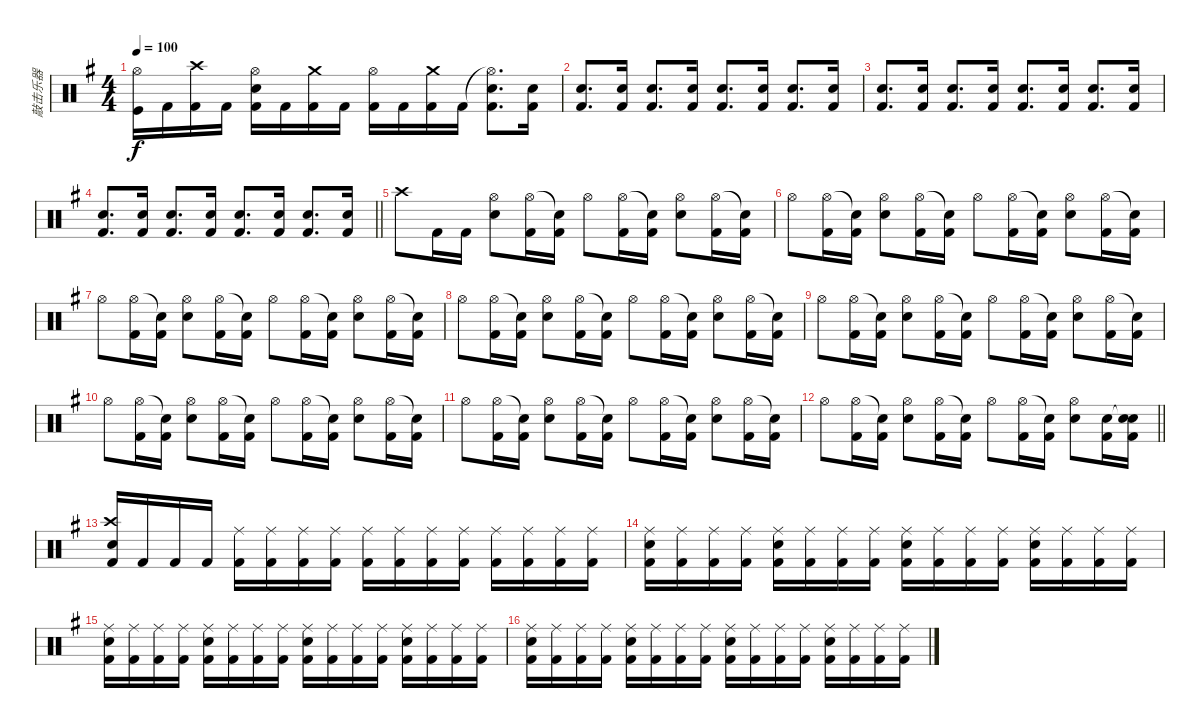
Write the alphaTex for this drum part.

\track ("敲击乐器" "敲击乐器") {instrument percussion}
\staff {score}
\articulation defaults
\ts (4 4)
\tempo 100
\clef neutral
\ks eminor
("Hi-Hat (open)" "Kick (hit)").16{dy f} "Kick (hit) 2".16 ("Crash high (hit)" "Kick (hit) 2").16 "Kick (hit) 2".16 ("Hi-Hat (open)" "Snare (hit) 2" "Kick (hit) 2").16 "Kick (hit) 2".16 ("Crash medium (hit)" "Kick (hit) 2").16 "Kick (hit) 2".16 ("Hi-Hat (open)" "Kick (hit) 2").16 "Kick (hit) 2".16 ("Crash medium (hit)" "Kick (hit) 2").16 "Kick (hit) 2".16 ("Hi-Hat (open)"{t} "Snare (hit) 2" "Kick (hit) 2").8{d} ("Snare (hit) 2" "Kick (hit) 2").16 |
("Snare (hit) 2" "Kick (hit) 2").8{d} ("Snare (hit) 2" "Kick (hit) 2").16 ("Snare (hit) 2" "Kick (hit) 2").8{d} ("Snare (hit) 2" "Kick (hit) 2").16 ("Snare (hit) 2" "Kick (hit) 2").8{d} ("Snare (hit) 2" "Kick (hit) 2").16 ("Snare (hit) 2" "Kick (hit) 2").8{d} ("Snare (hit) 2" "Kick (hit) 2").16 |
("Snare (hit) 2" "Kick (hit) 2").8{d} ("Snare (hit) 2" "Kick (hit) 2").16 ("Snare (hit) 2" "Kick (hit) 2").8{d} ("Snare (hit) 2" "Kick (hit) 2").16 ("Snare (hit) 2" "Kick (hit) 2").8{d} ("Snare (hit) 2" "Kick (hit) 2").16 ("Snare (hit) 2" "Kick (hit) 2").8{d} ("Snare (hit) 2" "Kick (hit) 2").16 |
\barLineRight lightlight
("Snare (hit) 2" "Kick (hit) 2").8{d} ("Snare (hit) 2" "Kick (hit) 2").16 ("Snare (hit) 2" "Kick (hit) 2").8{d} ("Snare (hit) 2" "Kick (hit) 2").16 ("Snare (hit) 2" "Kick (hit) 2").8{d} ("Snare (hit) 2" "Kick (hit) 2").16 ("Snare (hit) 2" "Kick (hit) 2").8{d} ("Snare (hit) 2" "Kick (hit) 2").16 |
"Crash high (hit)".8 "Kick (hit) 2".16 "Kick (hit) 2".16 ("Hi-Hat (open)" "Snare (hit) 2").8 ("Hi-Hat (open)" "Kick (hit) 2").16 ("Snare (hit)"{t} "Kick (hit) 2").16 "Hi-Hat (open)".8 ("Hi-Hat (open)" "Kick (hit) 2").16 ("Snare (hit)"{t} "Kick (hit) 2").16 ("Hi-Hat (open)" "Snare (hit) 2").8 ("Hi-Hat (open)" "Kick (hit) 2").16 ("Snare (hit)"{t} "Kick (hit) 2").16 |
"Hi-Hat (open)".8 ("Hi-Hat (open)" "Kick (hit) 2").16 ("Snare (hit)"{t} "Kick (hit) 2").16 ("Hi-Hat (open)" "Snare (hit) 2").8 ("Hi-Hat (open)" "Kick (hit) 2").16 ("Snare (hit)"{t} "Kick (hit) 2").16 "Hi-Hat (open)".8 ("Hi-Hat (open)" "Kick (hit) 2").16 ("Snare (hit)"{t} "Kick (hit) 2").16 ("Hi-Hat (open)" "Snare (hit) 2").8 ("Hi-Hat (open)" "Kick (hit) 2").16 ("Snare (hit)"{t} "Kick (hit) 2").16 |
"Hi-Hat (open)".8 ("Hi-Hat (open)" "Kick (hit) 2").16 ("Snare (hit)"{t} "Kick (hit) 2").16 ("Hi-Hat (open)" "Snare (hit) 2").8 ("Hi-Hat (open)" "Kick (hit) 2").16 ("Snare (hit)"{t} "Kick (hit) 2").16 "Hi-Hat (open)".8 ("Hi-Hat (open)" "Kick (hit) 2").16 ("Snare (hit)"{t} "Kick (hit) 2").16 ("Hi-Hat (open)" "Snare (hit) 2").8 ("Hi-Hat (open)" "Kick (hit) 2").16 ("Snare (hit)"{t} "Kick (hit) 2").16 |
"Hi-Hat (open)".8 ("Hi-Hat (open)" "Kick (hit) 2").16 ("Snare (hit)"{t} "Kick (hit) 2").16 ("Hi-Hat (open)" "Snare (hit) 2").8 ("Hi-Hat (open)" "Kick (hit) 2").16 ("Snare (hit)"{t} "Kick (hit) 2").16 "Hi-Hat (open)".8 ("Hi-Hat (open)" "Kick (hit) 2").16 ("Snare (hit)"{t} "Kick (hit) 2").16 ("Hi-Hat (open)" "Snare (hit) 2").8 ("Hi-Hat (open)" "Kick (hit) 2").16 ("Snare (hit)"{t} "Kick (hit) 2").16 |
"Hi-Hat (open)".8 ("Hi-Hat (open)" "Kick (hit) 2").16 ("Snare (hit)"{t} "Kick (hit) 2").16 ("Hi-Hat (open)" "Snare (hit) 2").8 ("Hi-Hat (open)" "Kick (hit) 2").16 ("Snare (hit)"{t} "Kick (hit) 2").16 "Hi-Hat (open)".8 ("Hi-Hat (open)" "Kick (hit) 2").16 ("Snare (hit)"{t} "Kick (hit) 2").16 ("Hi-Hat (open)" "Snare (hit) 2").8 ("Hi-Hat (open)" "Kick (hit) 2").16 ("Snare (hit)"{t} "Kick (hit) 2").16 |
"Hi-Hat (open)".8 ("Hi-Hat (open)" "Kick (hit) 2").16 ("Snare (hit)"{t} "Kick (hit) 2").16 ("Hi-Hat (open)" "Snare (hit) 2").8 ("Hi-Hat (open)" "Kick (hit) 2").16 ("Snare (hit)"{t} "Kick (hit) 2").16 "Hi-Hat (open)".8 ("Hi-Hat (open)" "Kick (hit) 2").16 ("Snare (hit)"{t} "Kick (hit) 2").16 ("Hi-Hat (open)" "Snare (hit) 2").8 ("Hi-Hat (open)" "Kick (hit) 2").16 ("Snare (hit)"{t} "Kick (hit) 2").16 |
"Hi-Hat (open)".8 ("Hi-Hat (open)" "Kick (hit) 2").16 ("Snare (hit)"{t} "Kick (hit) 2").16 ("Hi-Hat (open)" "Snare (hit) 2").8 ("Hi-Hat (open)" "Kick (hit) 2").16 ("Snare (hit)"{t} "Kick (hit) 2").16 "Hi-Hat (open)".8 ("Hi-Hat (open)" "Kick (hit) 2").16 ("Snare (hit)"{t} "Kick (hit) 2").16 ("Hi-Hat (open)" "Snare (hit) 2").8 ("Hi-Hat (open)" "Kick (hit) 2").16 ("Snare (hit)"{t} "Kick (hit) 2").16 |
\barLineRight lightlight "Hi-Hat (open)".8
("Hi-Hat (open)" "Kick (hit) 2").16 ("Snare (hit)"{t} "Kick (hit) 2").16 ("Hi-Hat (open)" "Snare (hit) 2").8 ("Hi-Hat (open)" "Kick (hit) 2").16 ("Snare (hit)"{t} "Kick (hit) 2").16 "Hi-Hat (open)".8 ("Hi-Hat (open)" "Kick (hit) 2").16 ("Snare (hit)"{t} "Kick (hit) 2").16 ("Hi-Hat (open)" "Snare (hit) 2").8 ("Snare (hit) 2" "Kick (hit) 2").16 ("Snare (hit)"{t} "Snare (hit) 2" "Kick (hit) 2").16 |
("Crash high (hit)" "Snare (hit) 2" "Kick (hit) 2").16 "Kick (hit) 2".16 "Kick (hit) 2".16 "Kick (hit) 2".16 ("Ride (middle)" "Kick (hit) 2").16 ("Ride (middle)" "Kick (hit) 2").16 ("Ride (middle)" "Kick (hit) 2").16 ("Ride (middle)" "Kick (hit) 2").16 ("Ride (middle)" "Kick (hit) 2").16 ("Ride (middle)" "Kick (hit) 2").16 ("Ride (middle)" "Kick (hit) 2").16 ("Ride (middle)" "Kick (hit) 2").16 ("Ride (middle)" "Kick (hit) 2").16 ("Ride (middle)" "Kick (hit) 2").16 ("Ride (middle)" "Kick (hit) 2").16 ("Ride (middle)" "Kick (hit) 2").16 |
("Ride (middle)" "Snare (hit) 2" "Kick (hit) 2").16 ("Ride (middle)" "Kick (hit) 2").16 ("Ride (middle)" "Kick (hit) 2").16 ("Ride (middle)" "Kick (hit) 2").16 ("Ride (middle)" "Snare (hit) 2" "Kick (hit) 2").16 ("Ride (middle)" "Kick (hit) 2").16 ("Ride (middle)" "Kick (hit) 2").16 ("Ride (middle)" "Kick (hit) 2").16 ("Ride (middle)" "Snare (hit) 2" "Kick (hit) 2").16 ("Ride (middle)" "Kick (hit) 2").16 ("Ride (middle)" "Kick (hit) 2").16 ("Ride (middle)" "Kick (hit) 2").16 ("Ride (middle)" "Snare (hit) 2" "Kick (hit) 2").16 ("Ride (middle)" "Kick (hit) 2").16 ("Ride (middle)" "Kick (hit) 2").16 ("Ride (middle)" "Kick (hit) 2").16 |
("Ride (middle)" "Snare (hit) 2" "Kick (hit) 2").16 ("Ride (middle)" "Kick (hit) 2").16 ("Ride (middle)" "Kick (hit) 2").16 ("Ride (middle)" "Kick (hit) 2").16 ("Ride (middle)" "Snare (hit) 2" "Kick (hit) 2").16 ("Ride (middle)" "Kick (hit) 2").16 ("Ride (middle)" "Kick (hit) 2").16 ("Ride (middle)" "Kick (hit) 2").16 ("Ride (middle)" "Snare (hit) 2" "Kick (hit) 2").16 ("Ride (middle)" "Kick (hit) 2").16 ("Ride (middle)" "Kick (hit) 2").16 ("Ride (middle)" "Kick (hit) 2").16 ("Ride (middle)" "Snare (hit) 2" "Kick (hit) 2").16 ("Ride (middle)" "Kick (hit) 2").16 ("Ride (middle)" "Kick (hit) 2").16 ("Ride (middle)" "Kick (hit) 2").16 |
("Ride (middle)" "Snare (hit) 2" "Kick (hit) 2").16 ("Ride (middle)" "Kick (hit) 2").16 ("Ride (middle)" "Kick (hit) 2").16 ("Ride (middle)" "Kick (hit) 2").16 ("Ride (middle)" "Snare (hit) 2" "Kick (hit) 2").16 ("Ride (middle)" "Kick (hit) 2").16 ("Ride (middle)" "Kick (hit) 2").16 ("Ride (middle)" "Kick (hit) 2").16 ("Ride (middle)" "Snare (hit) 2" "Kick (hit) 2").16 ("Ride (middle)" "Kick (hit) 2").16 ("Ride (middle)" "Kick (hit) 2").16 ("Ride (middle)" "Kick (hit) 2").16 ("Ride (middle)" "Snare (hit) 2" "Kick (hit) 2").16 ("Ride (middle)" "Kick (hit) 2").16 ("Ride (middle)" "Kick (hit) 2").16 ("Ride (middle)" "Kick (hit) 2").16
